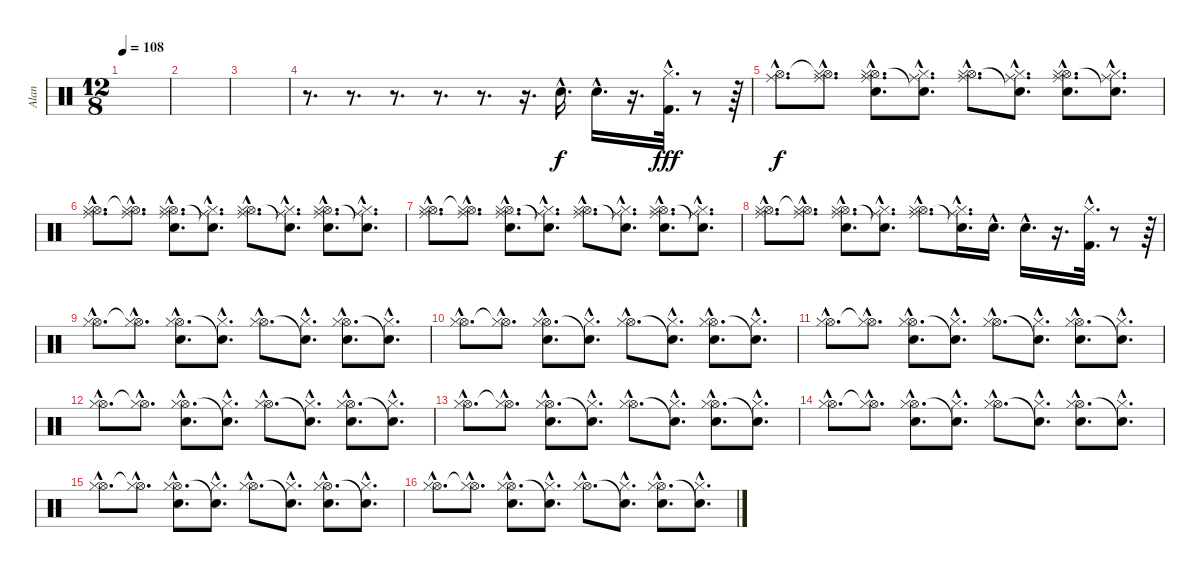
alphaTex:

\track ("Alan" "Alan") {instrument percussion}
\staff {score}
\articulation defaults
\ts (12 8)
\tempo 108
\clef neutral
\ks c
|
|
|
r.8{d} r.8{d} r.8{d} r.8{d} r.8{d} r.16{d} "Snare (hit) 2"{hac}.16{d} "Snare (hit) 2"{hac}.16{d} r.16{d} ("Kick (hit) 2"{hac} "Hi-Hat (closed)"{hac}).32{d dy fff} r.8 r.64 |
("Hi-Hat (open)"{hac} "Ride (middle)"{hac}).8{d dy f} ("Hi-Hat (open)"{hac t} "Hi-Hat (closed)"{hac} "Ride (middle)"{hac}).8{d} ("Hi-Hat (open)"{hac} "Snare (hit) 2"{hac} "Hi-Hat (closed)"{hac} "Ride (middle)"{hac}).8{d} ("Snare (hit)"{hac t} "Hi-Hat (closed)"{hac} "Ride (middle)"{hac}).8{d} ("Hi-Hat (open)"{hac} "Hi-Hat (closed)"{hac} "Ride (middle)"{hac}).8{d} ("Snare (hit)"{hac t} "Hi-Hat (closed)"{hac} "Ride (middle)"{hac}).8{d} ("Hi-Hat (open)"{hac} "Snare (hit) 2"{hac} "Hi-Hat (closed)"{hac} "Ride (middle)"{hac}).8{d} ("Snare (hit)"{hac t} "Hi-Hat (closed)"{hac} "Ride (middle)"{hac}).8{d} |
("Hi-Hat (open)"{hac} "Hi-Hat (closed)"{hac} "Ride (middle)"{hac}).8{d} ("Hi-Hat (open)"{hac t} "Hi-Hat (closed)"{hac} "Ride (middle)"{hac}).8{d} ("Hi-Hat (open)"{hac} "Snare (hit) 2"{hac} "Hi-Hat (closed)"{hac} "Ride (middle)"{hac}).8{d} ("Snare (hit)"{hac t} "Hi-Hat (closed)"{hac} "Ride (middle)"{hac}).8{d} ("Hi-Hat (open)"{hac} "Hi-Hat (closed)"{hac} "Ride (middle)"{hac}).8{d} ("Snare (hit)"{hac t} "Hi-Hat (closed)"{hac} "Ride (middle)"{hac}).8{d} ("Hi-Hat (open)"{hac} "Snare (hit) 2"{hac} "Hi-Hat (closed)"{hac} "Ride (middle)"{hac}).8{d} ("Snare (hit)"{hac t} "Hi-Hat (closed)"{hac} "Ride (middle)"{hac}).8{d} |
("Hi-Hat (open)"{hac} "Hi-Hat (closed)"{hac} "Ride (middle)"{hac}).8{d} ("Hi-Hat (open)"{hac t} "Hi-Hat (closed)"{hac} "Ride (middle)"{hac}).8{d} ("Hi-Hat (open)"{hac} "Snare (hit) 2"{hac} "Hi-Hat (closed)"{hac} "Ride (middle)"{hac}).8{d} ("Snare (hit)"{hac t} "Hi-Hat (closed)"{hac} "Ride (middle)"{hac}).8{d} ("Hi-Hat (open)"{hac} "Hi-Hat (closed)"{hac} "Ride (middle)"{hac}).8{d} ("Snare (hit)"{hac t} "Hi-Hat (closed)"{hac} "Ride (middle)"{hac}).8{d} ("Hi-Hat (open)"{hac} "Snare (hit) 2"{hac} "Hi-Hat (closed)"{hac} "Ride (middle)"{hac}).8{d} ("Snare (hit)"{hac t} "Hi-Hat (closed)"{hac} "Ride (middle)"{hac}).8{d} |
("Hi-Hat (open)"{hac} "Hi-Hat (closed)"{hac} "Ride (middle)"{hac}).8{d} ("Hi-Hat (open)"{hac t} "Hi-Hat (closed)"{hac} "Ride (middle)"{hac}).8{d} ("Hi-Hat (open)"{hac} "Snare (hit) 2"{hac} "Hi-Hat (closed)"{hac} "Ride (middle)"{hac}).8{d} ("Snare (hit)"{hac t} "Hi-Hat (closed)"{hac} "Ride (middle)"{hac}).8{d} ("Hi-Hat (open)"{hac} "Hi-Hat (closed)"{hac} "Ride (middle)"{hac}).8{d} ("Snare (hit)"{hac t} "Hi-Hat (closed)"{hac} "Ride (middle)"{hac}).16{d} "Snare (hit) 2"{hac}.16{d} "Snare (hit) 2"{hac}.16{d} r.16{d} ("Kick (hit) 2"{hac} "Hi-Hat (closed)"{hac}).32{d} r.8 r.64 |
("Hi-Hat (open)"{hac} "Hi-Hat (closed)"{hac}).8{d} ("Hi-Hat (open)"{hac t} "Hi-Hat (closed)"{hac}).8{d} ("Hi-Hat (open)"{hac} "Snare (hit) 2"{hac} "Hi-Hat (closed)"{hac}).8{d} ("Snare (hit)"{hac t} "Hi-Hat (closed)"{hac}).8{d} ("Hi-Hat (open)"{hac} "Hi-Hat (closed)"{hac}).8{d} ("Snare (hit)"{hac t} "Hi-Hat (closed)"{hac}).8{d} ("Hi-Hat (open)"{hac} "Snare (hit) 2"{hac} "Hi-Hat (closed)"{hac}).8{d} ("Snare (hit)"{hac t} "Hi-Hat (closed)"{hac}).8{d} |
("Hi-Hat (open)"{hac} "Hi-Hat (closed)"{hac}).8{d} ("Hi-Hat (open)"{hac t} "Hi-Hat (closed)"{hac}).8{d} ("Hi-Hat (open)"{hac} "Snare (hit) 2"{hac} "Hi-Hat (closed)"{hac}).8{d} ("Snare (hit)"{hac t} "Hi-Hat (closed)"{hac}).8{d} ("Hi-Hat (open)"{hac} "Hi-Hat (closed)"{hac}).8{d} ("Snare (hit)"{hac t} "Hi-Hat (closed)"{hac}).8{d} ("Hi-Hat (open)"{hac} "Snare (hit) 2"{hac} "Hi-Hat (closed)"{hac}).8{d} ("Snare (hit)"{hac t} "Hi-Hat (closed)"{hac}).8{d} |
("Hi-Hat (open)"{hac} "Hi-Hat (closed)"{hac}).8{d} ("Hi-Hat (open)"{hac t} "Hi-Hat (closed)"{hac}).8{d} ("Hi-Hat (open)"{hac} "Snare (hit) 2"{hac} "Hi-Hat (closed)"{hac}).8{d} ("Snare (hit)"{hac t} "Hi-Hat (closed)"{hac}).8{d} ("Hi-Hat (open)"{hac} "Hi-Hat (closed)"{hac}).8{d} ("Snare (hit)"{hac t} "Hi-Hat (closed)"{hac}).8{d} ("Hi-Hat (open)"{hac} "Snare (hit) 2"{hac} "Hi-Hat (closed)"{hac}).8{d} ("Snare (hit)"{hac t} "Hi-Hat (closed)"{hac}).8{d} |
("Hi-Hat (open)"{hac} "Hi-Hat (closed)"{hac}).8{d} ("Hi-Hat (open)"{hac t} "Hi-Hat (closed)"{hac}).8{d} ("Hi-Hat (open)"{hac} "Snare (hit) 2"{hac} "Hi-Hat (closed)"{hac}).8{d} ("Snare (hit)"{hac t} "Hi-Hat (closed)"{hac}).8{d} ("Hi-Hat (open)"{hac} "Hi-Hat (closed)"{hac}).8{d} ("Snare (hit)"{hac t} "Hi-Hat (closed)"{hac}).8{d} ("Hi-Hat (open)"{hac} "Snare (hit) 2"{hac} "Hi-Hat (closed)"{hac}).8{d} ("Snare (hit)"{hac t} "Hi-Hat (closed)"{hac}).8{d} |
("Hi-Hat (open)"{hac} "Hi-Hat (closed)"{hac}).8{d} ("Hi-Hat (open)"{hac t} "Hi-Hat (closed)"{hac}).8{d} ("Hi-Hat (open)"{hac} "Snare (hit) 2"{hac} "Hi-Hat (closed)"{hac}).8{d} ("Snare (hit)"{hac t} "Hi-Hat (closed)"{hac}).8{d} ("Hi-Hat (open)"{hac} "Hi-Hat (closed)"{hac}).8{d} ("Snare (hit)"{hac t} "Hi-Hat (closed)"{hac}).8{d} ("Hi-Hat (open)"{hac} "Snare (hit) 2"{hac} "Hi-Hat (closed)"{hac}).8{d} ("Snare (hit)"{hac t} "Hi-Hat (closed)"{hac}).8{d} |
("Hi-Hat (open)"{hac} "Hi-Hat (closed)"{hac}).8{d} ("Hi-Hat (open)"{hac t} "Hi-Hat (closed)"{hac}).8{d} ("Hi-Hat (open)"{hac} "Snare (hit) 2"{hac} "Hi-Hat (closed)"{hac}).8{d} ("Snare (hit)"{hac t} "Hi-Hat (closed)"{hac}).8{d} ("Hi-Hat (open)"{hac} "Hi-Hat (closed)"{hac}).8{d} ("Snare (hit)"{hac t} "Hi-Hat (closed)"{hac}).8{d} ("Hi-Hat (open)"{hac} "Snare (hit) 2"{hac} "Hi-Hat (closed)"{hac}).8{d} ("Snare (hit)"{hac t} "Hi-Hat (closed)"{hac}).8{d} |
("Hi-Hat (open)"{hac} "Hi-Hat (closed)"{hac}).8{d} ("Hi-Hat (open)"{hac t} "Hi-Hat (closed)"{hac}).8{d} ("Hi-Hat (open)"{hac} "Snare (hit) 2"{hac} "Hi-Hat (closed)"{hac}).8{d} ("Snare (hit)"{hac t} "Hi-Hat (closed)"{hac}).8{d} ("Hi-Hat (open)"{hac} "Hi-Hat (closed)"{hac}).8{d} ("Snare (hit)"{hac t} "Hi-Hat (closed)"{hac}).8{d} ("Hi-Hat (open)"{hac} "Snare (hit) 2"{hac} "Hi-Hat (closed)"{hac}).8{d} ("Snare (hit)"{hac t} "Hi-Hat (closed)"{hac}).8{d} |
("Hi-Hat (open)"{hac} "Hi-Hat (closed)"{hac}).8{d} ("Hi-Hat (open)"{hac t} "Hi-Hat (closed)"{hac}).8{d} ("Hi-Hat (open)"{hac} "Snare (hit) 2"{hac} "Hi-Hat (closed)"{hac}).8{d} ("Snare (hit)"{hac t} "Hi-Hat (closed)"{hac}).8{d} ("Hi-Hat (open)"{hac} "Hi-Hat (closed)"{hac}).8{d} ("Snare (hit)"{hac t} "Hi-Hat (closed)"{hac}).8{d} ("Hi-Hat (open)"{hac} "Snare (hit) 2"{hac} "Hi-Hat (closed)"{hac}).8{d} ("Snare (hit)"{hac t} "Hi-Hat (closed)"{hac}).8{d}
